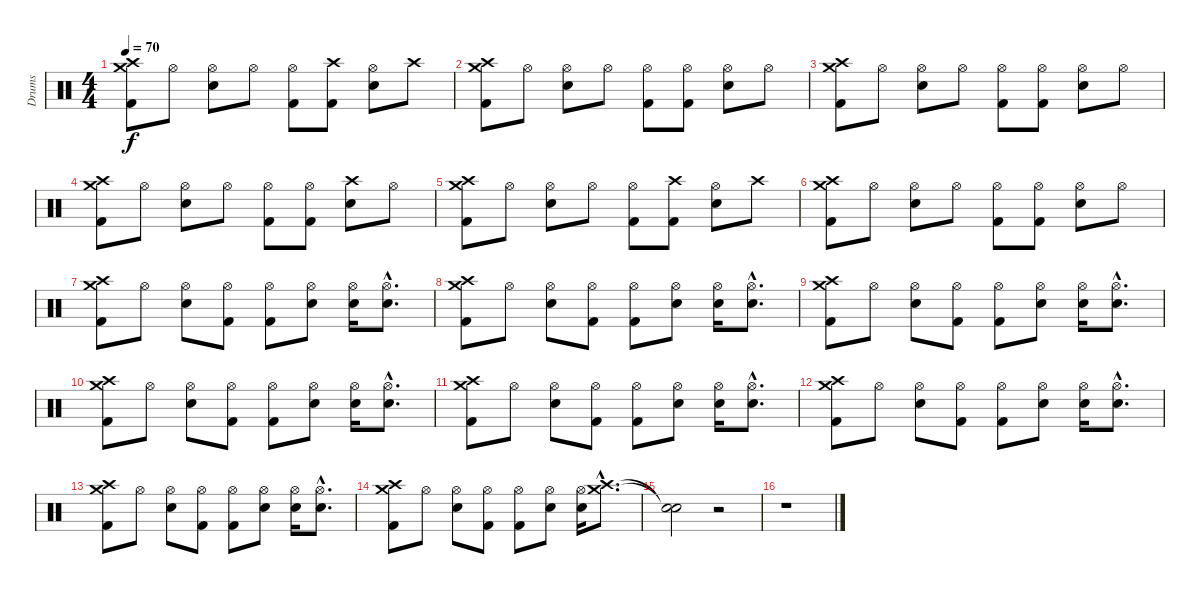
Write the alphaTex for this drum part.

\track ("Drums" "Drums") {instrument percussion}
\staff {score}
\articulation defaults
\ts (4 4)
\tempo 70
\clef neutral
\ks c
("Crash high (hit)" "Crash medium (hit)" "Kick (hit) 2").8{dy f} "Hi-Hat (open)".8 ("Hi-Hat (open)" "Electric Snare (hit)").8 "Hi-Hat (open)".8 ("Hi-Hat (open)" "Kick (hit) 2").8 ("Crash high (hit)" "Kick (hit) 2").8 ("Hi-Hat (open)" "Electric Snare (hit)").8 "Crash high (hit)".8 |
("Crash high (hit)" "Crash medium (hit)" "Kick (hit) 2").8 "Hi-Hat (open)".8 ("Hi-Hat (open)" "Electric Snare (hit)").8 "Hi-Hat (open)".8 ("Hi-Hat (open)" "Kick (hit) 2").8 ("Hi-Hat (open)" "Kick (hit) 2").8 ("Hi-Hat (open)" "Electric Snare (hit)").8 "Hi-Hat (open)".8 |
("Crash high (hit)" "Crash medium (hit)" "Kick (hit) 2").8 "Hi-Hat (open)".8 ("Hi-Hat (open)" "Electric Snare (hit)").8 "Hi-Hat (open)".8 ("Hi-Hat (open)" "Kick (hit) 2").8 ("Hi-Hat (open)" "Kick (hit) 2").8 ("Hi-Hat (open)" "Electric Snare (hit)").8 "Hi-Hat (open)".8 |
("Crash high (hit)" "Crash medium (hit)" "Kick (hit) 2").8 "Hi-Hat (open)".8 ("Hi-Hat (open)" "Electric Snare (hit)").8 "Hi-Hat (open)".8 ("Hi-Hat (open)" "Kick (hit) 2").8 ("Hi-Hat (open)" "Kick (hit) 2").8 ("Crash high (hit)" "Electric Snare (hit)").8 "Hi-Hat (open)".8 |
("Crash high (hit)" "Crash medium (hit)" "Kick (hit) 2").8 "Hi-Hat (open)".8 ("Hi-Hat (open)" "Electric Snare (hit)").8 "Hi-Hat (open)".8 ("Hi-Hat (open)" "Kick (hit) 2").8 ("Crash high (hit)" "Kick (hit) 2").8 ("Hi-Hat (open)" "Electric Snare (hit)").8 "Crash high (hit)".8 |
("Crash high (hit)" "Crash medium (hit)" "Kick (hit) 2").8 "Hi-Hat (open)".8 ("Hi-Hat (open)" "Electric Snare (hit)").8 "Hi-Hat (open)".8 ("Hi-Hat (open)" "Kick (hit) 2").8 ("Hi-Hat (open)" "Kick (hit) 2").8 ("Hi-Hat (open)" "Electric Snare (hit)").8 "Hi-Hat (open)".8 |
("Crash high (hit)" "Crash medium (hit)" "Kick (hit) 2").8 "Hi-Hat (open)".8 ("Hi-Hat (open)" "Electric Snare (hit)").8 ("Hi-Hat (open)" "Kick (hit) 2").8 ("Hi-Hat (open)" "Kick (hit) 2").8 ("Hi-Hat (open)" "Electric Snare (hit)").8 ("Hi-Hat (open)" "Electric Snare (hit)").16 ("Hi-Hat (open)"{hac} "Electric Snare (hit)"{hac}).8{d} |
("Crash high (hit)" "Crash medium (hit)" "Kick (hit) 2").8 "Hi-Hat (open)".8 ("Hi-Hat (open)" "Electric Snare (hit)").8 ("Hi-Hat (open)" "Kick (hit) 2").8 ("Hi-Hat (open)" "Kick (hit) 2").8 ("Hi-Hat (open)" "Electric Snare (hit)").8 ("Hi-Hat (open)" "Electric Snare (hit)").16 ("Hi-Hat (open)"{hac} "Electric Snare (hit)"{hac}).8{d} |
("Crash high (hit)" "Crash medium (hit)" "Kick (hit) 2").8 "Hi-Hat (open)".8 ("Hi-Hat (open)" "Electric Snare (hit)").8 ("Hi-Hat (open)" "Kick (hit) 2").8 ("Hi-Hat (open)" "Kick (hit) 2").8 ("Hi-Hat (open)" "Electric Snare (hit)").8 ("Hi-Hat (open)" "Electric Snare (hit)").16 ("Hi-Hat (open)"{hac} "Electric Snare (hit)"{hac}).8{d} |
("Crash high (hit)" "Crash medium (hit)" "Kick (hit) 2").8 "Hi-Hat (open)".8 ("Hi-Hat (open)" "Electric Snare (hit)").8 ("Hi-Hat (open)" "Kick (hit) 2").8 ("Hi-Hat (open)" "Kick (hit) 2").8 ("Hi-Hat (open)" "Electric Snare (hit)").8 ("Hi-Hat (open)" "Electric Snare (hit)").16 ("Hi-Hat (open)"{hac} "Electric Snare (hit)"{hac}).8{d} |
("Crash high (hit)" "Crash medium (hit)" "Kick (hit) 2").8 "Hi-Hat (open)".8 ("Hi-Hat (open)" "Electric Snare (hit)").8 ("Hi-Hat (open)" "Kick (hit) 2").8 ("Hi-Hat (open)" "Kick (hit) 2").8 ("Hi-Hat (open)" "Electric Snare (hit)").8 ("Hi-Hat (open)" "Electric Snare (hit)").16 ("Hi-Hat (open)"{hac} "Electric Snare (hit)"{hac}).8{d} |
("Crash high (hit)" "Crash medium (hit)" "Kick (hit) 2").8 "Hi-Hat (open)".8 ("Hi-Hat (open)" "Electric Snare (hit)").8 ("Hi-Hat (open)" "Kick (hit) 2").8 ("Hi-Hat (open)" "Kick (hit) 2").8 ("Hi-Hat (open)" "Electric Snare (hit)").8 ("Hi-Hat (open)" "Electric Snare (hit)").16 ("Hi-Hat (open)"{hac} "Electric Snare (hit)"{hac}).8{d} |
("Crash high (hit)" "Crash medium (hit)" "Kick (hit) 2").8 "Hi-Hat (open)".8 ("Hi-Hat (open)" "Electric Snare (hit)").8 ("Hi-Hat (open)" "Kick (hit) 2").8 ("Hi-Hat (open)" "Kick (hit) 2").8 ("Hi-Hat (open)" "Electric Snare (hit)").8 ("Hi-Hat (open)" "Electric Snare (hit)").16 ("Hi-Hat (open)"{hac} "Electric Snare (hit)"{hac}).8{d} |
("Crash high (hit)" "Crash medium (hit)" "Kick (hit) 2").8 "Hi-Hat (open)".8 ("Hi-Hat (open)" "Electric Snare (hit)").8 ("Hi-Hat (open)" "Kick (hit) 2").8 ("Hi-Hat (open)" "Kick (hit) 2").8 ("Hi-Hat (open)" "Electric Snare (hit)").8 ("Hi-Hat (open)" "Electric Snare (hit)").16 ("Crash high (hit)"{hac} "Crash medium (hit)"{hac}).8{d} |
("Snare (hit)"{t} "Snare (hit)"{t}).2 r.2 |
r.1
